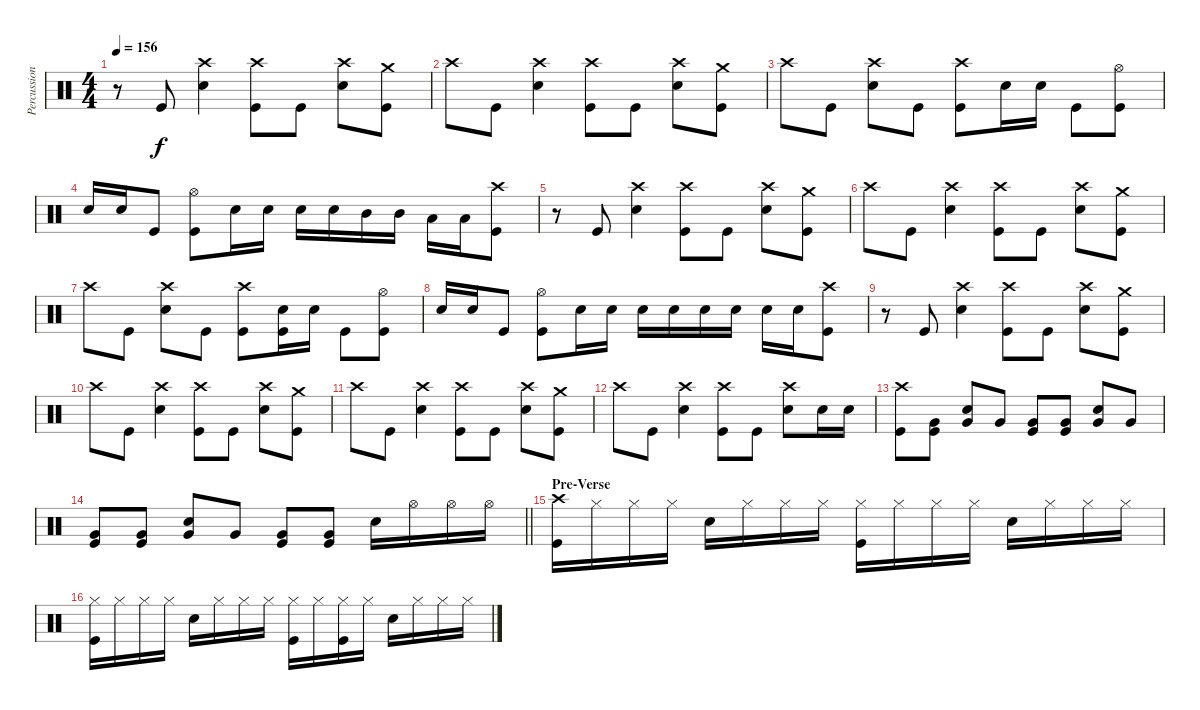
\track ("Percussion" "Percussion") {instrument percussion}
\staff {score}
\articulation defaults
\ts (4 4)
\tempo 156
\clef neutral
\ks c
r.8{dy f} "Kick (hit)".8 ("Crash high (hit)" "Snare (hit) 2").4 ("Crash high (hit)" "Kick (hit)").8 "Kick (hit)".8 ("Crash high (hit)" "Snare (hit) 2").8 ("Crash medium (hit)" "Kick (hit)").8 |
"Crash high (hit)".8 "Kick (hit)".8 ("Crash high (hit)" "Snare (hit) 2").4 ("Crash high (hit)" "Kick (hit)").8 "Kick (hit)".8 ("Crash high (hit)" "Snare (hit) 2").8 ("Crash medium (hit)" "Kick (hit)").8 |
"Crash high (hit)".8 "Kick (hit)".8 ("Crash high (hit)" "Snare (hit) 2").8 "Kick (hit)".8 ("Crash high (hit)" "Kick (hit)").8 "Snare (hit) 2".16 "Snare (hit) 2".16 "Kick (hit)".8 ("Hi-Hat (open)" "Kick (hit)").8 |
"Snare (hit) 2".16 "Snare (hit) 2".16 "Kick (hit)".8 ("Hi-Hat (open)" "Kick (hit)").8 "Snare (hit) 2".16 "Snare (hit) 2".16 "Snare (hit) 2".16 "Snare (hit) 2".16 "Mid Tom (hit)".16 "Mid Tom (hit)".16 "Low Tom (hit)".16 "Low Tom (hit)".16 ("Crash high (hit)" "Kick (hit)").8 |
r.8 "Kick (hit)".8 ("Crash high (hit)" "Snare (hit) 2").4 ("Crash high (hit)" "Kick (hit)").8 "Kick (hit)".8 ("Crash high (hit)" "Snare (hit) 2").8 ("Crash medium (hit)" "Kick (hit)").8 |
"Crash high (hit)".8 "Kick (hit)".8 ("Crash high (hit)" "Snare (hit) 2").4 ("Crash high (hit)" "Kick (hit)").8 "Kick (hit)".8 ("Crash high (hit)" "Snare (hit) 2").8 ("Crash medium (hit)" "Kick (hit)").8 |
"Crash high (hit)".8 "Kick (hit)".8 ("Crash high (hit)" "Snare (hit) 2").8 "Kick (hit)".8 ("Crash high (hit)" "Kick (hit)").8 ("Snare (hit) 2" "Kick (hit)").16 "Snare (hit) 2".16 "Kick (hit)".8 ("Hi-Hat (open)" "Kick (hit)").8 |
"Snare (hit) 2".16 "Snare (hit) 2".16 "Kick (hit)".8 ("Hi-Hat (open)" "Kick (hit)").8 "Snare (hit) 2".16 "Snare (hit) 2".16 "Snare (hit) 2".16 "Snare (hit) 2".16 "Snare (hit) 2".16 "Snare (hit) 2".16 "Snare (hit) 2".16 "Snare (hit) 2".16 ("Crash high (hit)" "Kick (hit)").8 |
r.8 "Kick (hit)".8 ("Crash high (hit)" "Snare (hit) 2").4 ("Crash high (hit)" "Kick (hit)").8 "Kick (hit)".8 ("Crash high (hit)" "Snare (hit) 2").8 ("Crash medium (hit)" "Kick (hit)").8 |
"Crash high (hit)".8 "Kick (hit)".8 ("Crash high (hit)" "Snare (hit) 2").4 ("Crash high (hit)" "Kick (hit)").8 "Kick (hit)".8 ("Crash high (hit)" "Snare (hit) 2").8 ("Crash medium (hit)" "Kick (hit)").8 |
"Crash high (hit)".8 "Kick (hit)".8 ("Crash high (hit)" "Snare (hit) 2").4 ("Crash high (hit)" "Kick (hit)").8 "Kick (hit)".8 ("Crash high (hit)" "Snare (hit) 2").8 ("Crash medium (hit)" "Kick (hit)").8 |
"Crash high (hit)".8 "Kick (hit)".8 ("Crash high (hit)" "Snare (hit) 2").4 ("Crash high (hit)" "Kick (hit)").8 "Kick (hit)".8 ("Crash high (hit)" "Snare (hit) 2").8 "Snare (hit) 2".16 "Snare (hit) 2".16 |
("Crash high (hit)" "Kick (hit)").8 ("Very Low Tom (hit)" "Kick (hit)").8 ("Snare (hit) 2" "Very Low Tom (hit)").8 "Very Low Tom (hit)".8 ("Very Low Tom (hit)" "Kick (hit)").8 ("Very Low Tom (hit)" "Kick (hit)").8 ("Snare (hit) 2" "Very Low Tom (hit)").8 "Very Low Tom (hit)".8 |
\barLineRight lightlight
("Very Low Tom (hit)" "Kick (hit)").8 ("Very Low Tom (hit)" "Kick (hit)").8 ("Snare (hit) 2" "Very Low Tom (hit)").8 "Very Low Tom (hit)".8 ("Very Low Tom (hit)" "Kick (hit)").8 ("Very Low Tom (hit)" "Kick (hit)").8 "Snare (hit) 2".16 "Hi-Hat (open)".16 "Hi-Hat (open)".16 "Hi-Hat (open)".16 |
\section ("" "Pre-Verse")
("Crash high (hit)" "Kick (hit)").16 "Hi-Hat (closed)".16 "Hi-Hat (closed)".16 "Hi-Hat (closed)".16 "Snare (hit) 2".16 "Hi-Hat (closed)".16 "Hi-Hat (closed)".16 "Hi-Hat (closed)".16 ("Hi-Hat (closed)" "Kick (hit)").16 "Hi-Hat (closed)".16 "Hi-Hat (closed)".16 "Hi-Hat (closed)".16 "Snare (hit) 2".16 "Hi-Hat (closed)".16 "Hi-Hat (closed)".16 "Hi-Hat (closed)".16 |
("Hi-Hat (closed)" "Kick (hit)").16 "Hi-Hat (closed)".16 "Hi-Hat (closed)".16 "Hi-Hat (closed)".16 "Snare (hit) 2".16 "Hi-Hat (closed)".16 "Hi-Hat (closed)".16 "Hi-Hat (closed)".16 ("Hi-Hat (closed)" "Kick (hit)").16 "Hi-Hat (closed)".16 ("Hi-Hat (closed)" "Kick (hit)").16 "Hi-Hat (closed)".16 "Snare (hit) 2".16 "Hi-Hat (closed)".16 "Hi-Hat (closed)".16 "Hi-Hat (closed)".16
